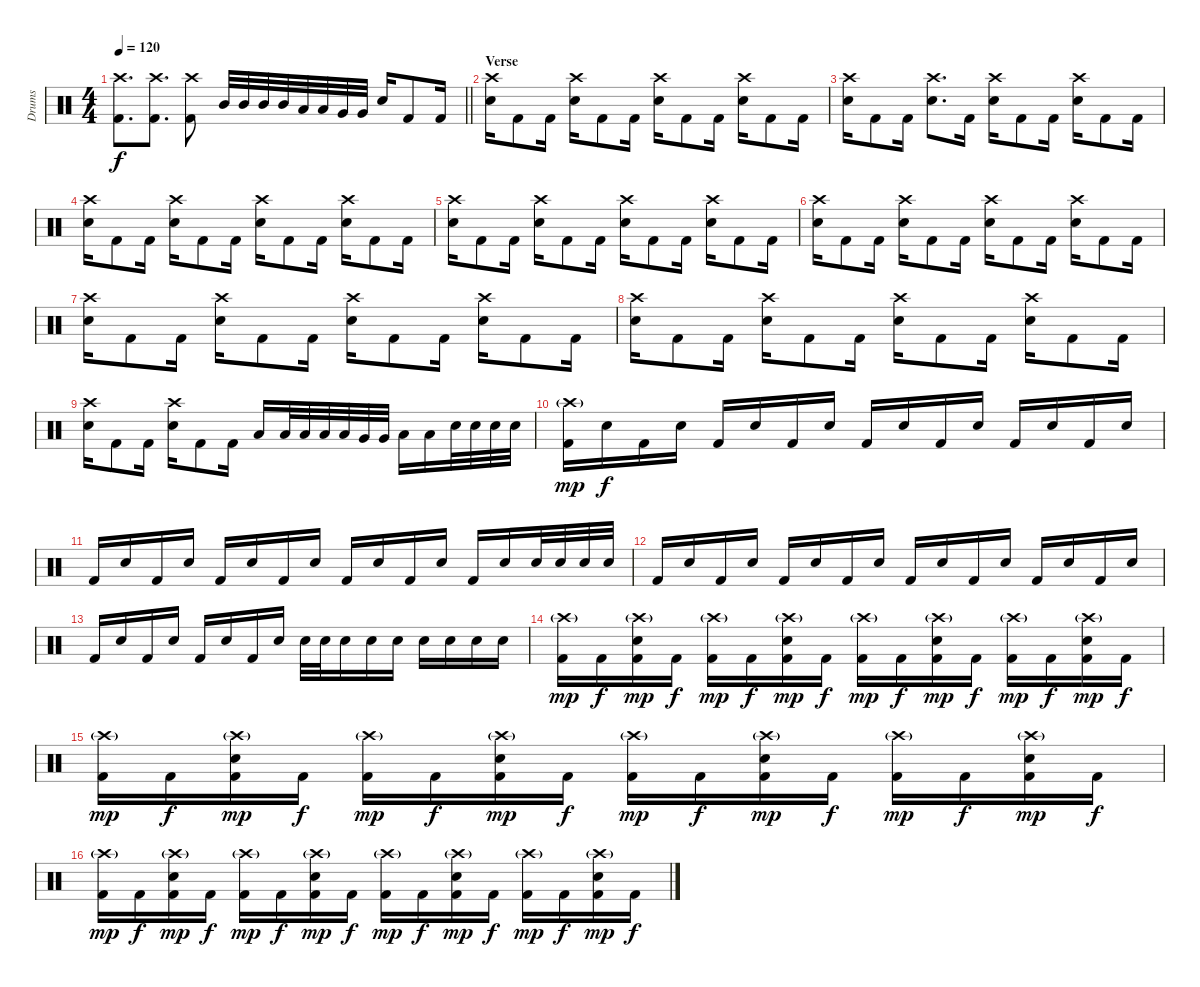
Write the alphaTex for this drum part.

\track ("Drums" "Drums") {instrument percussion}
\staff {score}
\articulation defaults
\ts (4 4)
\tempo 120
\clef neutral
\barLineRight lightlight
\ks c
("Crash high (hit)" "Kick (hit) 2").8{d dy f} ("Crash high (hit)" "Kick (hit) 2").8{d} ("Crash high (hit)" "Kick (hit) 2").8 "Mid Tom (hit)".32 "Mid Tom (hit)".32 "Mid Tom (hit)".32 "Mid Tom (hit)".32 "Low Tom (hit)".32 "Low Tom (hit)".32 "Very Low Tom (hit)".32 "Very Low Tom (hit)".32 "Electric Snare (hit)".16 "Kick (hit) 2".8 "Kick (hit) 2".16 |
\section ("" "Verse")
("Crash high (hit)" "Electric Snare (hit)").16 "Kick (hit) 2".8 "Kick (hit) 2".16 ("Crash high (hit)" "Electric Snare (hit)").16 "Kick (hit) 2".8 "Kick (hit) 2".16 ("Crash high (hit)" "Electric Snare (hit)").16 "Kick (hit) 2".8 "Kick (hit) 2".16 ("Crash high (hit)" "Electric Snare (hit)").16 "Kick (hit) 2".8 "Kick (hit) 2".16 |
("Crash high (hit)" "Electric Snare (hit)").16 "Kick (hit) 2".8 "Kick (hit) 2".16 ("Crash high (hit)" "Electric Snare (hit)").8{d} "Kick (hit) 2".16 ("Crash high (hit)" "Electric Snare (hit)").16 "Kick (hit) 2".8 "Kick (hit) 2".16 ("Crash high (hit)" "Electric Snare (hit)").16 "Kick (hit) 2".8 "Kick (hit) 2".16 |
("Crash high (hit)" "Electric Snare (hit)").16 "Kick (hit) 2".8 "Kick (hit) 2".16 ("Crash high (hit)" "Electric Snare (hit)").16 "Kick (hit) 2".8 "Kick (hit) 2".16 ("Crash high (hit)" "Electric Snare (hit)").16 "Kick (hit) 2".8 "Kick (hit) 2".16 ("Crash high (hit)" "Electric Snare (hit)").16 "Kick (hit) 2".8 "Kick (hit) 2".16 |
("Crash high (hit)" "Electric Snare (hit)").16 "Kick (hit) 2".8 "Kick (hit) 2".16 ("Crash high (hit)" "Electric Snare (hit)").16 "Kick (hit) 2".8 "Kick (hit) 2".16 ("Crash high (hit)" "Electric Snare (hit)").16 "Kick (hit) 2".8 "Kick (hit) 2".16 ("Crash high (hit)" "Electric Snare (hit)").16 "Kick (hit) 2".8 "Kick (hit) 2".16 |
("Crash high (hit)" "Electric Snare (hit)").16 "Kick (hit) 2".8 "Kick (hit) 2".16 ("Crash high (hit)" "Electric Snare (hit)").16 "Kick (hit) 2".8 "Kick (hit) 2".16 ("Crash high (hit)" "Electric Snare (hit)").16 "Kick (hit) 2".8 "Kick (hit) 2".16 ("Crash high (hit)" "Electric Snare (hit)").16 "Kick (hit) 2".8 "Kick (hit) 2".16 |
("Crash high (hit)" "Electric Snare (hit)").16 "Kick (hit) 2".8 "Kick (hit) 2".16 ("Crash high (hit)" "Electric Snare (hit)").16 "Kick (hit) 2".8 "Kick (hit) 2".16 ("Crash high (hit)" "Electric Snare (hit)").16 "Kick (hit) 2".8 "Kick (hit) 2".16 ("Crash high (hit)" "Electric Snare (hit)").16 "Kick (hit) 2".8 "Kick (hit) 2".16 |
("Crash high (hit)" "Electric Snare (hit)").16 "Kick (hit) 2".8 "Kick (hit) 2".16 ("Crash high (hit)" "Electric Snare (hit)").16 "Kick (hit) 2".8 "Kick (hit) 2".16 ("Crash high (hit)" "Electric Snare (hit)").16 "Kick (hit) 2".8 "Kick (hit) 2".16 ("Crash high (hit)" "Electric Snare (hit)").16 "Kick (hit) 2".8 "Kick (hit) 2".16 |
("Crash high (hit)" "Electric Snare (hit)").16 "Kick (hit) 2".8 "Kick (hit) 2".16 ("Crash high (hit)" "Electric Snare (hit)").16 "Kick (hit) 2".8 "Kick (hit) 2".16 "Low Tom (hit)".16 "Low Tom (hit)".32 "Low Tom (hit)".32 "Low Tom (hit)".32 "Low Tom (hit)".32 "Very Low Tom (hit)".32 "Very Low Tom (hit)".32 "Low Tom (hit)".16 "Low Tom (hit)".16 "Electric Snare (hit)".32 "Electric Snare (hit)".32 "Electric Snare (hit)".32 "Electric Snare (hit)".32 |
("Crash high (hit)"{g} "Kick (hit) 2").16{dy mp} "Electric Snare (hit)".16{dy f} "Kick (hit) 2".16 "Electric Snare (hit)".16 "Kick (hit) 2".16 "Electric Snare (hit)".16 "Kick (hit) 2".16 "Electric Snare (hit)".16 "Kick (hit) 2".16 "Electric Snare (hit)".16 "Kick (hit) 2".16 "Electric Snare (hit)".16 "Kick (hit) 2".16 "Electric Snare (hit)".16 "Kick (hit) 2".16 "Electric Snare (hit)".16 |
"Kick (hit) 2".16 "Electric Snare (hit)".16 "Kick (hit) 2".16 "Electric Snare (hit)".16 "Kick (hit) 2".16 "Electric Snare (hit)".16 "Kick (hit) 2".16 "Electric Snare (hit)".16 "Kick (hit) 2".16 "Electric Snare (hit)".16 "Kick (hit) 2".16 "Electric Snare (hit)".16 "Kick (hit) 2".16 "Electric Snare (hit)".16 "Electric Snare (hit)".32 "Electric Snare (hit)".32 "Electric Snare (hit)".32 "Electric Snare (hit)".32 |
"Kick (hit) 2".16 "Electric Snare (hit)".16 "Kick (hit) 2".16 "Electric Snare (hit)".16 "Kick (hit) 2".16 "Electric Snare (hit)".16 "Kick (hit) 2".16 "Electric Snare (hit)".16 "Kick (hit) 2".16 "Electric Snare (hit)".16 "Kick (hit) 2".16 "Electric Snare (hit)".16 "Kick (hit) 2".16 "Electric Snare (hit)".16 "Kick (hit) 2".16 "Electric Snare (hit)".16 |
"Kick (hit) 2".16 "Electric Snare (hit)".16 "Kick (hit) 2".16 "Electric Snare (hit)".16 "Kick (hit) 2".16 "Electric Snare (hit)".16 "Kick (hit) 2".16 "Electric Snare (hit)".16 "Electric Snare (hit)".32 "Electric Snare (hit)".32 "Electric Snare (hit)".16 "Electric Snare (hit)".16 "Electric Snare (hit)".16 "Electric Snare (hit)".16 "Electric Snare (hit)".16 "Electric Snare (hit)".16 "Electric Snare (hit)".16 |
("Crash high (hit)"{g} "Kick (hit) 2").16{dy mp} "Kick (hit) 2".16{dy f} ("Crash high (hit)"{g} "Electric Snare (hit)" "Kick (hit) 2").16{dy mp} "Kick (hit) 2".16{dy f} ("Crash high (hit)"{g} "Kick (hit) 2").16{dy mp} "Kick (hit) 2".16{dy f} ("Crash high (hit)"{g} "Electric Snare (hit)" "Kick (hit) 2").16{dy mp} "Kick (hit) 2".16{dy f} ("Crash high (hit)"{g} "Kick (hit) 2").16{dy mp} "Kick (hit) 2".16{dy f} ("Crash high (hit)"{g} "Electric Snare (hit)" "Kick (hit) 2").16{dy mp} "Kick (hit) 2".16{dy f} ("Crash high (hit)"{g} "Kick (hit) 2").16{dy mp} "Kick (hit) 2".16{dy f} ("Crash high (hit)"{g} "Electric Snare (hit)" "Kick (hit) 2").16{dy mp} "Kick (hit) 2".16{dy f} |
("Crash high (hit)"{g} "Kick (hit) 2").16{dy mp} "Kick (hit) 2".16{dy f} ("Crash high (hit)"{g} "Electric Snare (hit)" "Kick (hit) 2").16{dy mp} "Kick (hit) 2".16{dy f} ("Crash high (hit)"{g} "Kick (hit) 2").16{dy mp} "Kick (hit) 2".16{dy f} ("Crash high (hit)"{g} "Electric Snare (hit)" "Kick (hit) 2").16{dy mp} "Kick (hit) 2".16{dy f} ("Crash high (hit)"{g} "Kick (hit) 2").16{dy mp} "Kick (hit) 2".16{dy f} ("Crash high (hit)"{g} "Electric Snare (hit)" "Kick (hit) 2").16{dy mp} "Kick (hit) 2".16{dy f} ("Crash high (hit)"{g} "Kick (hit) 2").16{dy mp} "Kick (hit) 2".16{dy f} ("Crash high (hit)"{g} "Electric Snare (hit)" "Kick (hit) 2").16{dy mp} "Kick (hit) 2".16{dy f} |
("Crash high (hit)"{g} "Kick (hit) 2").16{dy mp} "Kick (hit) 2".16{dy f} ("Crash high (hit)"{g} "Electric Snare (hit)" "Kick (hit) 2").16{dy mp} "Kick (hit) 2".16{dy f} ("Crash high (hit)"{g} "Kick (hit) 2").16{dy mp} "Kick (hit) 2".16{dy f} ("Crash high (hit)"{g} "Electric Snare (hit)" "Kick (hit) 2").16{dy mp} "Kick (hit) 2".16{dy f} ("Crash high (hit)"{g} "Kick (hit) 2").16{dy mp} "Kick (hit) 2".16{dy f} ("Crash high (hit)"{g} "Electric Snare (hit)" "Kick (hit) 2").16{dy mp} "Kick (hit) 2".16{dy f} ("Crash high (hit)"{g} "Kick (hit) 2").16{dy mp} "Kick (hit) 2".16{dy f} ("Crash high (hit)"{g} "Electric Snare (hit)" "Kick (hit) 2").16{dy mp} "Kick (hit) 2".16{dy f}
